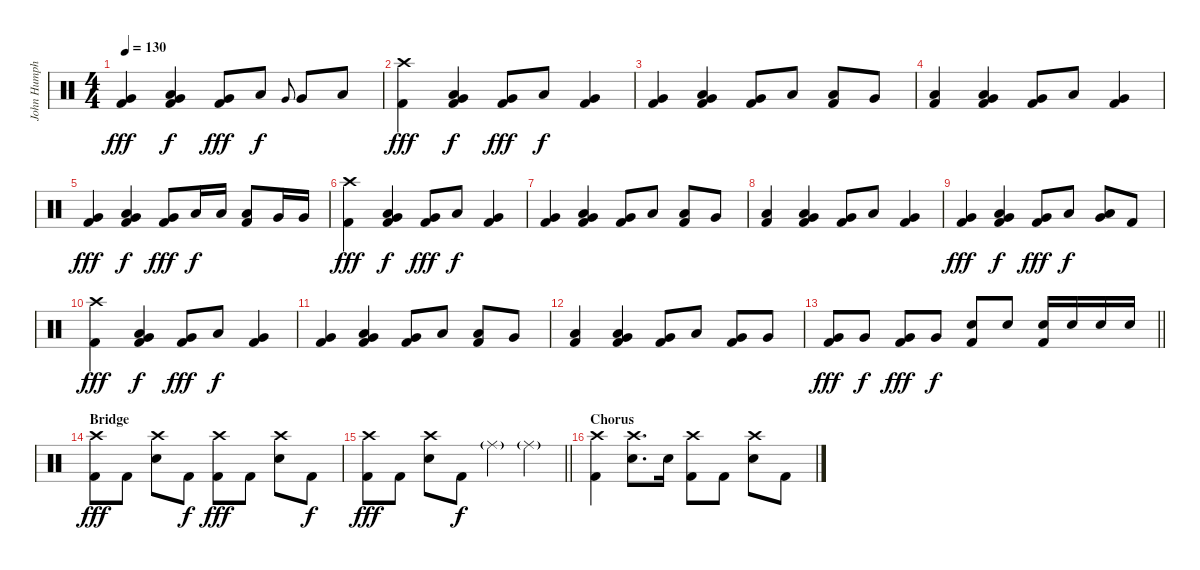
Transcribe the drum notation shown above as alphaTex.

\track ("John Humphrey" "John Humph") {instrument percussion}
\staff {score}
\articulation defaults
\ts (4 4)
\tempo 130
\clef neutral
\ks c
("Very Low Tom (hit)" "Kick (hit) 2").4{dy fff} ("Low Tom (hit)" "Very Low Tom (hit)" "Kick (hit) 2").4{dy f} ("Very Low Tom (hit)" "Kick (hit) 2").8{dy fff} "Low Tom (hit)".8{dy f} "Very Low Tom (hit)".8{gr onbeat} "Very Low Tom (hit)".8 "Low Floor Tom (hit)".8 |
("Crash high (hit)" "Kick (hit) 2").4{dy fff} ("Low Tom (hit)" "Very Low Tom (hit)" "Kick (hit) 2").4{dy f} ("Very Low Tom (hit)" "Kick (hit) 2").8{dy fff} "Low Tom (hit)".8{dy f} ("Very Low Tom (hit)" "Kick (hit) 2").4 |
("Very Low Tom (hit)" "Kick (hit) 2").4 ("Low Tom (hit)" "Very Low Tom (hit)" "Kick (hit) 2").4 ("Very Low Tom (hit)" "Kick (hit) 2").8 "Low Tom (hit)".8 ("Low Floor Tom (hit)" "Kick (hit) 2").8 "Very Low Tom (hit)".8 |
("Low Floor Tom (hit)" "Kick (hit) 2").4 ("Low Tom (hit)" "Very Low Tom (hit)" "Kick (hit) 2").4 ("Very Low Tom (hit)" "Kick (hit) 2").8 "Low Tom (hit)".8 ("Very Low Tom (hit)" "Kick (hit) 2").4 |
("Very Low Tom (hit)" "Kick (hit) 2").4{dy fff} ("Low Tom (hit)" "Very Low Tom (hit)" "Kick (hit) 2").4{dy f} ("Very Low Tom (hit)" "Kick (hit) 2").8{dy fff} "Low Tom (hit)".16{dy f} "Low Tom (hit)".16 ("Low Tom (hit)" "Kick (hit) 2").8 "Very Low Tom (hit)".16 "Very Low Tom (hit)".16 |
("Crash high (hit)" "Kick (hit) 2").4{dy fff} ("Low Tom (hit)" "Very Low Tom (hit)" "Kick (hit) 2").4{dy f} ("Very Low Tom (hit)" "Kick (hit) 2").8{dy fff} "Low Tom (hit)".8{dy f} ("Very Low Tom (hit)" "Kick (hit) 2").4 |
("Very Low Tom (hit)" "Kick (hit) 2").4 ("Low Tom (hit)" "Very Low Tom (hit)" "Kick (hit) 2").4 ("Very Low Tom (hit)" "Kick (hit) 2").8 "Low Tom (hit)".8 ("Low Floor Tom (hit)" "Kick (hit) 2").8 "Very Low Tom (hit)".8 |
("Low Floor Tom (hit)" "Kick (hit) 2").4 ("Low Tom (hit)" "Very Low Tom (hit)" "Kick (hit) 2").4 ("Very Low Tom (hit)" "Kick (hit) 2").8 "Low Tom (hit)".8 ("Very Low Tom (hit)" "Kick (hit) 2").4 |
("Very Low Tom (hit)" "Kick (hit) 2").4{dy fff} ("Low Tom (hit)" "Very Low Tom (hit)" "Kick (hit) 2").4{dy f} ("Very Low Tom (hit)" "Kick (hit) 2").8{dy fff} "Low Tom (hit)".8{dy f} ("Low Tom (hit)" "Very Low Tom (hit)").8{bd 120} "Kick (hit) 2".8 |
("Crash high (hit)" "Kick (hit) 2").4{dy fff} ("Low Tom (hit)" "Very Low Tom (hit)" "Kick (hit) 2").4{dy f} ("Very Low Tom (hit)" "Kick (hit) 2").8{dy fff} "Low Tom (hit)".8{dy f} ("Very Low Tom (hit)" "Kick (hit) 2").4 |
("Very Low Tom (hit)" "Kick (hit) 2").4 ("Low Tom (hit)" "Very Low Tom (hit)" "Kick (hit) 2").4 ("Very Low Tom (hit)" "Kick (hit) 2").8 "Low Tom (hit)".8 ("Low Floor Tom (hit)" "Kick (hit) 2").8 "Very Low Tom (hit)".8 |
("Low Floor Tom (hit)" "Kick (hit) 2").4 ("Low Tom (hit)" "Very Low Tom (hit)" "Kick (hit) 2").4 ("Very Low Tom (hit)" "Kick (hit) 2").8 "Low Tom (hit)".8 ("Very Low Tom (hit)" "Kick (hit) 2").8 "Very Low Tom (hit)".8 |
\barLineRight lightlight
("Very Low Tom (hit)" "Kick (hit) 2").8{dy fff} "Very Low Tom (hit)".8{dy f} ("Very Low Tom (hit)" "Kick (hit) 2").8{dy fff} "Very Low Tom (hit)".8{dy f} ("Electric Snare (hit)" "Kick (hit) 2").8 "Electric Snare (hit)".8 ("Electric Snare (hit)" "Kick (hit) 2").16 "Electric Snare (hit)".16 "Electric Snare (hit)".16 "Electric Snare (hit)".16 |
\section ("" "Bridge")
("Crash high (hit)" "Kick (hit) 2").8{dy fff} "Kick (hit) 2".8 ("Crash high (hit)" "Electric Snare (hit)").8 "Kick (hit) 2".8{dy f} ("Crash high (hit)" "Kick (hit) 2").8{dy fff} "Kick (hit) 2".8 ("Crash high (hit)" "Electric Snare (hit)").8 "Kick (hit) 2".8{dy f} |
\barLineRight lightlight
("Crash high (hit)" "Kick (hit) 2").8{dy fff} "Kick (hit) 2".8 ("Crash high (hit)" "Electric Snare (hit)").8 "Kick (hit) 2".8{dy f} "Ride (middle)"{g}.4 "Ride (middle)"{g}.4 |
\section ("" "Chorus")
("Crash high (hit)" "Kick (hit) 2").4 ("Crash high (hit)" "Electric Snare (hit)").8{d} "Electric Snare (hit)".16 ("Crash high (hit)" "Kick (hit) 2").8 "Kick (hit) 2".8 ("Crash high (hit)" "Electric Snare (hit)").8 "Kick (hit) 2".8
